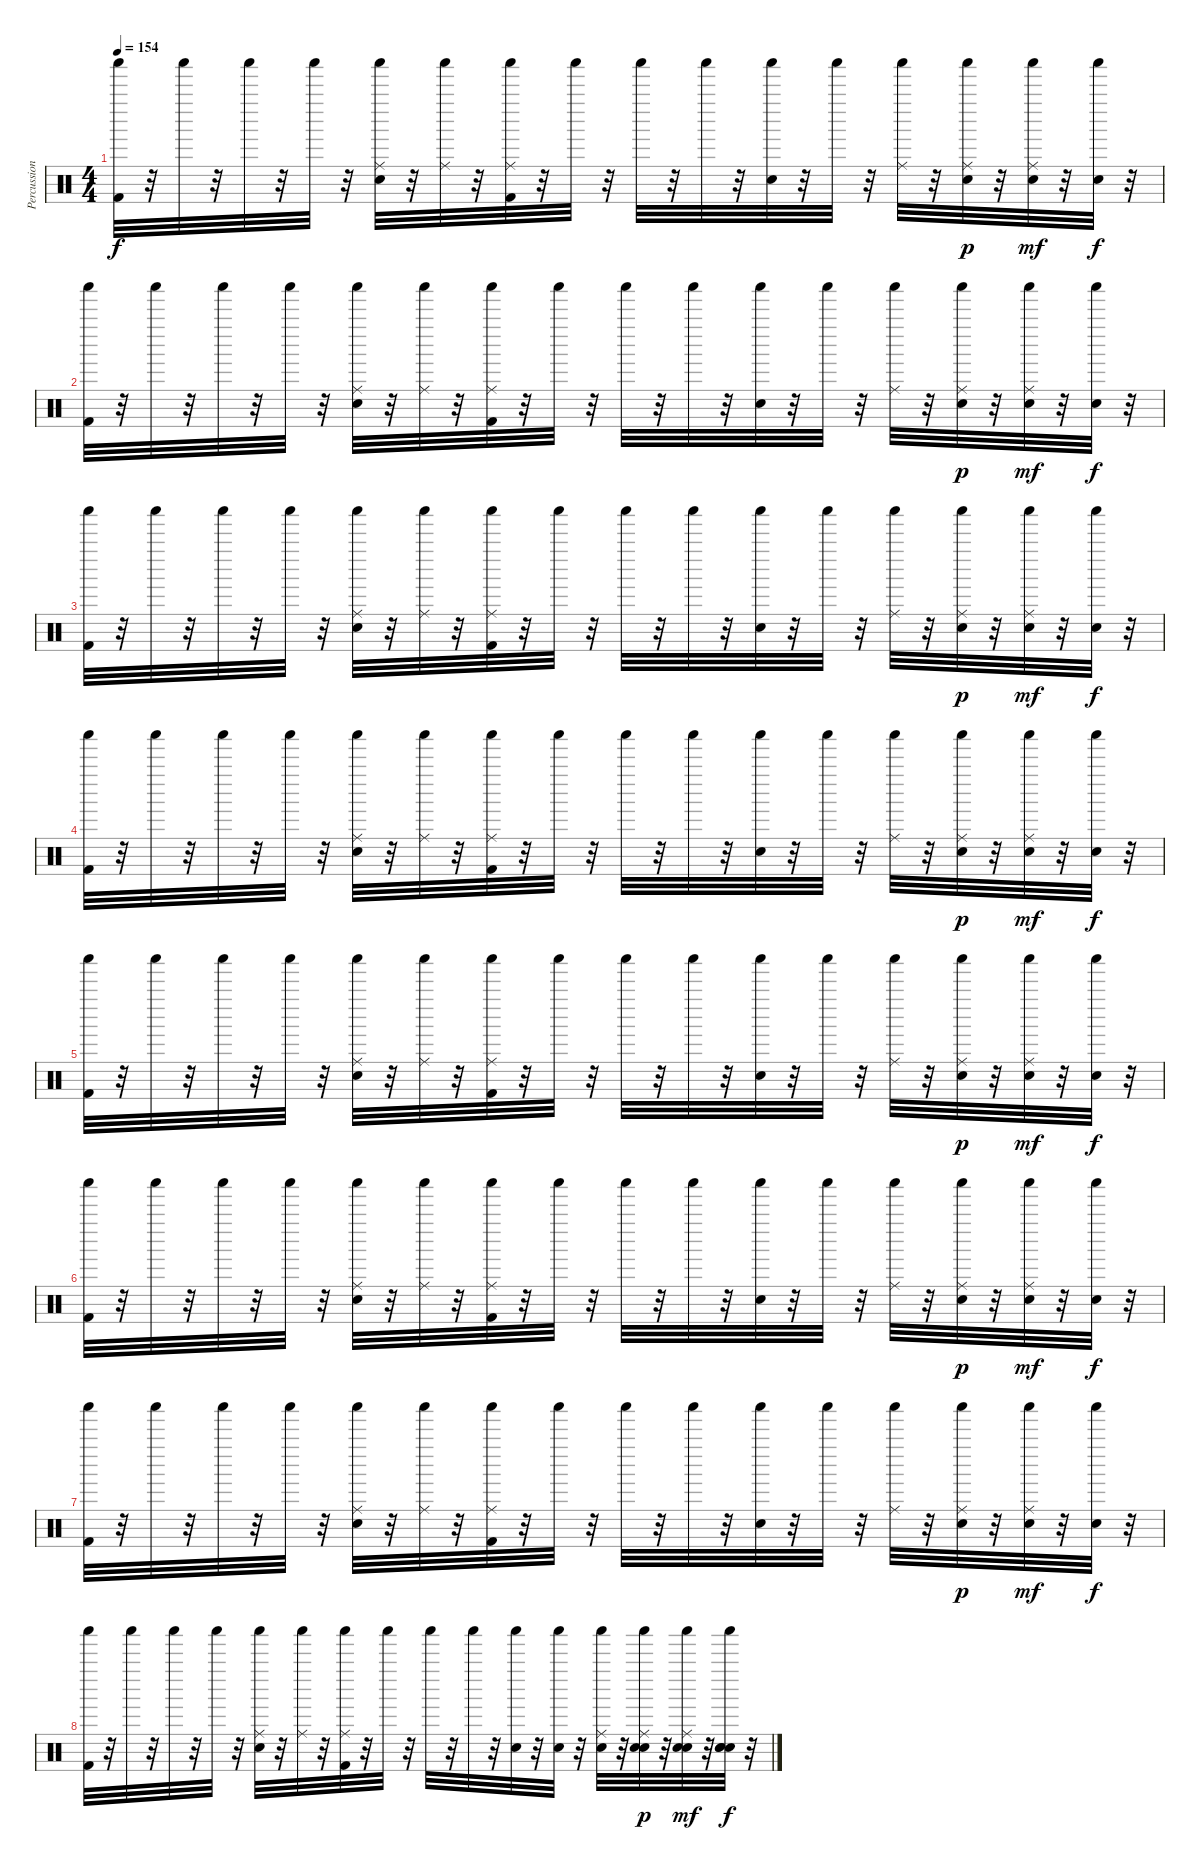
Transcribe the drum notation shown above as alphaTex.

\track ("Percussion" "Percussion") {instrument percussion}
\staff {score}
\articulation defaults
\ts (4 4)
\tempo 154
\clef neutral
\ks c
("Shaker (hit)" "Kick (hit) 2").32{dy f} r.32 "Shaker (hit)".32 r.32 "Shaker (hit)".32 r.32 "Shaker (hit)".32 r.32 ("Shaker (hit)" "Snare (hit) 2" "Ride (middle)").32 r.32 ("Shaker (hit)" "Ride (middle)").32 r.32 ("Shaker (hit)" "Kick (hit) 2" "Ride (middle)").32 r.32 "Shaker (hit)".32 r.32 "Shaker (hit)".32 r.32 "Shaker (hit)".32 r.32 ("Shaker (hit)" "Snare (hit) 2").32 r.32 "Shaker (hit)".32 r.32 ("Shaker (hit)" "Ride (middle)").32 r.32 ("Shaker (hit)" "Snare (hit) 2" "Ride (middle)").32{dy p} r.32 ("Shaker (hit)" "Snare (hit) 2" "Ride (middle)").32{dy mf} r.32 ("Shaker (hit)" "Snare (hit) 2").32{dy f} r.32 |
("Shaker (hit)" "Kick (hit) 2").32 r.32 "Shaker (hit)".32 r.32 "Shaker (hit)".32 r.32 "Shaker (hit)".32 r.32 ("Shaker (hit)" "Snare (hit) 2" "Ride (middle)").32 r.32 ("Shaker (hit)" "Ride (middle)").32 r.32 ("Shaker (hit)" "Kick (hit) 2" "Ride (middle)").32 r.32 "Shaker (hit)".32 r.32 "Shaker (hit)".32 r.32 "Shaker (hit)".32 r.32 ("Shaker (hit)" "Snare (hit) 2").32 r.32 "Shaker (hit)".32 r.32 ("Shaker (hit)" "Ride (middle)").32 r.32 ("Shaker (hit)" "Snare (hit) 2" "Ride (middle)").32{dy p} r.32 ("Shaker (hit)" "Snare (hit) 2" "Ride (middle)").32{dy mf} r.32 ("Shaker (hit)" "Snare (hit) 2").32{dy f} r.32 |
("Shaker (hit)" "Kick (hit) 2").32 r.32 "Shaker (hit)".32 r.32 "Shaker (hit)".32 r.32 "Shaker (hit)".32 r.32 ("Shaker (hit)" "Snare (hit) 2" "Ride (middle)").32 r.32 ("Shaker (hit)" "Ride (middle)").32 r.32 ("Shaker (hit)" "Kick (hit) 2" "Ride (middle)").32 r.32 "Shaker (hit)".32 r.32 "Shaker (hit)".32 r.32 "Shaker (hit)".32 r.32 ("Shaker (hit)" "Snare (hit) 2").32 r.32 "Shaker (hit)".32 r.32 ("Shaker (hit)" "Ride (middle)").32 r.32 ("Shaker (hit)" "Snare (hit) 2" "Ride (middle)").32{dy p} r.32 ("Shaker (hit)" "Snare (hit) 2" "Ride (middle)").32{dy mf} r.32 ("Shaker (hit)" "Snare (hit) 2").32{dy f} r.32 |
("Shaker (hit)" "Kick (hit) 2").32 r.32 "Shaker (hit)".32 r.32 "Shaker (hit)".32 r.32 "Shaker (hit)".32 r.32 ("Shaker (hit)" "Snare (hit) 2" "Ride (middle)").32 r.32 ("Shaker (hit)" "Ride (middle)").32 r.32 ("Shaker (hit)" "Kick (hit) 2" "Ride (middle)").32 r.32 "Shaker (hit)".32 r.32 "Shaker (hit)".32 r.32 "Shaker (hit)".32 r.32 ("Shaker (hit)" "Snare (hit) 2").32 r.32 "Shaker (hit)".32 r.32 ("Shaker (hit)" "Ride (middle)").32 r.32 ("Shaker (hit)" "Snare (hit) 2" "Ride (middle)").32{dy p} r.32 ("Shaker (hit)" "Snare (hit) 2" "Ride (middle)").32{dy mf} r.32 ("Shaker (hit)" "Snare (hit) 2").32{dy f} r.32 |
("Shaker (hit)" "Kick (hit) 2").32 r.32 "Shaker (hit)".32 r.32 "Shaker (hit)".32 r.32 "Shaker (hit)".32 r.32 ("Shaker (hit)" "Snare (hit) 2" "Ride (middle)").32 r.32 ("Shaker (hit)" "Ride (middle)").32 r.32 ("Shaker (hit)" "Kick (hit) 2" "Ride (middle)").32 r.32 "Shaker (hit)".32 r.32 "Shaker (hit)".32 r.32 "Shaker (hit)".32 r.32 ("Shaker (hit)" "Snare (hit) 2").32 r.32 "Shaker (hit)".32 r.32 ("Shaker (hit)" "Ride (middle)").32 r.32 ("Shaker (hit)" "Snare (hit) 2" "Ride (middle)").32{dy p} r.32 ("Shaker (hit)" "Snare (hit) 2" "Ride (middle)").32{dy mf} r.32 ("Shaker (hit)" "Snare (hit) 2").32{dy f} r.32 |
("Shaker (hit)" "Kick (hit) 2").32 r.32 "Shaker (hit)".32 r.32 "Shaker (hit)".32 r.32 "Shaker (hit)".32 r.32 ("Shaker (hit)" "Snare (hit) 2" "Ride (middle)").32 r.32 ("Shaker (hit)" "Ride (middle)").32 r.32 ("Shaker (hit)" "Kick (hit) 2" "Ride (middle)").32 r.32 "Shaker (hit)".32 r.32 "Shaker (hit)".32 r.32 "Shaker (hit)".32 r.32 ("Shaker (hit)" "Snare (hit) 2").32 r.32 "Shaker (hit)".32 r.32 ("Shaker (hit)" "Ride (middle)").32 r.32 ("Shaker (hit)" "Snare (hit) 2" "Ride (middle)").32{dy p} r.32 ("Shaker (hit)" "Snare (hit) 2" "Ride (middle)").32{dy mf} r.32 ("Shaker (hit)" "Snare (hit) 2").32{dy f} r.32 |
("Shaker (hit)" "Kick (hit) 2").32 r.32 "Shaker (hit)".32 r.32 "Shaker (hit)".32 r.32 "Shaker (hit)".32 r.32 ("Shaker (hit)" "Snare (hit) 2" "Ride (middle)").32 r.32 ("Shaker (hit)" "Ride (middle)").32 r.32 ("Shaker (hit)" "Kick (hit) 2" "Ride (middle)").32 r.32 "Shaker (hit)".32 r.32 "Shaker (hit)".32 r.32 "Shaker (hit)".32 r.32 ("Shaker (hit)" "Snare (hit) 2").32 r.32 "Shaker (hit)".32 r.32 ("Shaker (hit)" "Ride (middle)").32 r.32 ("Shaker (hit)" "Snare (hit) 2" "Ride (middle)").32{dy p} r.32 ("Shaker (hit)" "Snare (hit) 2" "Ride (middle)").32{dy mf} r.32 ("Shaker (hit)" "Snare (hit) 2").32{dy f} r.32 |
("Shaker (hit)" "Kick (hit) 2").32 r.32 "Shaker (hit)".32 r.32 "Shaker (hit)".32 r.32 "Shaker (hit)".32 r.32 ("Shaker (hit)" "Snare (hit) 2" "Ride (middle)").32 r.32 ("Shaker (hit)" "Ride (middle)").32 r.32 ("Shaker (hit)" "Kick (hit) 2" "Ride (middle)").32 r.32 "Shaker (hit)".32 r.32 "Shaker (hit)".32 r.32 "Shaker (hit)".32 r.32 ("Shaker (hit)" "Snare (hit) 2").32 r.32 ("Shaker (hit)" "Snare (hit) 2").32 r.32 ("Shaker (hit)" "Snare (hit) 2" "Ride (middle)").32 r.32 ("Shaker (hit)" "Snare (hit) 2" "Ride (middle)" "Snare (hit) 2").32{dy p} r.32 ("Shaker (hit)" "Snare (hit) 2" "Ride (middle)" "Snare (hit) 2").32{dy mf} r.32 ("Shaker (hit)" "Snare (hit) 2" "Snare (hit) 2" "Snare (hit) 2").32{dy f} r.32
